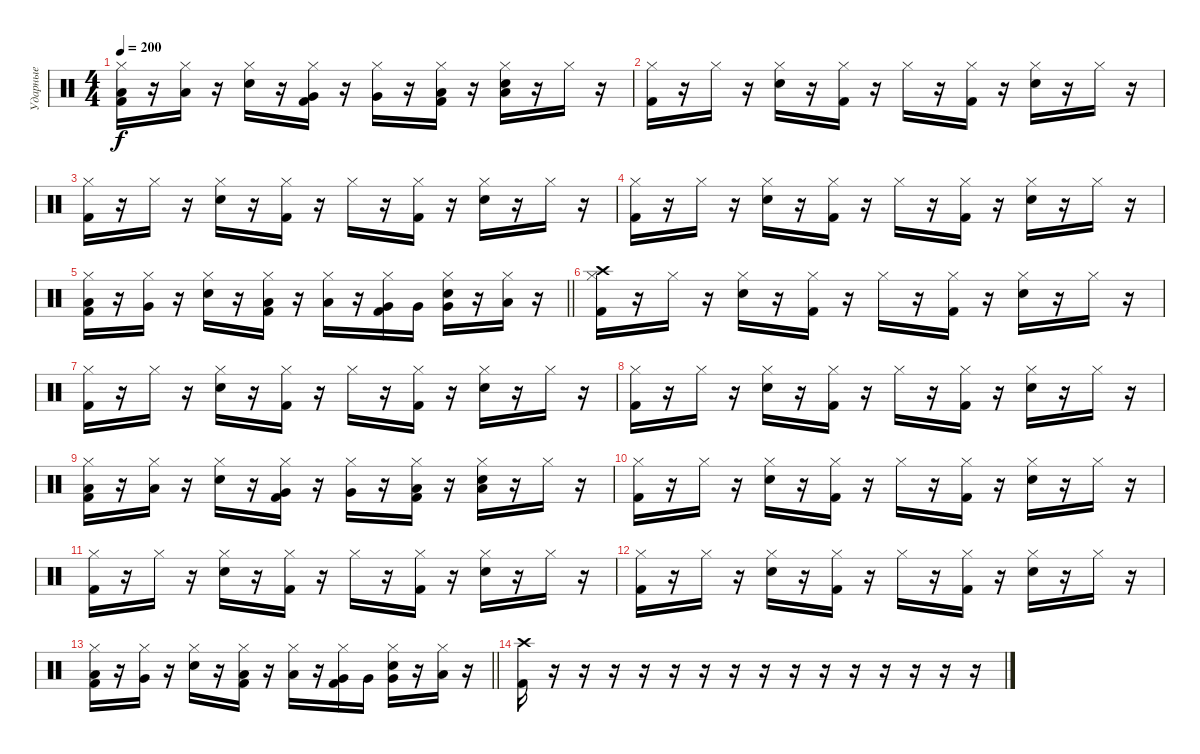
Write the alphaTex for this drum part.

\track ("Ударные" "Ударные") {instrument percussion}
\staff {score}
\articulation defaults
\ts (4 4)
\tempo 200
\clef neutral
\ks c
("Kick (hit) 2" "Low Floor Tom (hit)" "Hi-Hat (closed)").16{dy f} r.16 ("Low Floor Tom (hit)" "Hi-Hat (closed)").16 r.16 ("Snare (hit) 2" "Hi-Hat (closed)").16 r.16 ("Kick (hit) 2" "Very Low Tom (hit)" "Hi-Hat (closed)").16 r.16 ("Very Low Tom (hit)" "Hi-Hat (closed)").16 r.16 ("Kick (hit) 2" "Low Tom (hit)" "Hi-Hat (closed)").16 r.16 ("Snare (hit) 2" "Low Tom (hit)" "Hi-Hat (closed)").16 r.16 "Hi-Hat (closed)".16 r.16 |
("Kick (hit) 2" "Hi-Hat (closed)").16 r.16 "Hi-Hat (closed)".16 r.16 ("Snare (hit) 2" "Hi-Hat (closed)").16 r.16 ("Kick (hit) 2" "Hi-Hat (closed)").16 r.16 "Hi-Hat (closed)".16 r.16 ("Kick (hit) 2" "Hi-Hat (closed)").16 r.16 ("Snare (hit) 2" "Hi-Hat (closed)").16 r.16 "Hi-Hat (closed)".16 r.16 |
("Kick (hit) 2" "Hi-Hat (closed)").16 r.16 "Hi-Hat (closed)".16 r.16 ("Snare (hit) 2" "Hi-Hat (closed)").16 r.16 ("Kick (hit) 2" "Hi-Hat (closed)").16 r.16 "Hi-Hat (closed)".16 r.16 ("Kick (hit) 2" "Hi-Hat (closed)").16 r.16 ("Snare (hit) 2" "Hi-Hat (closed)").16 r.16 "Hi-Hat (closed)".16 r.16 |
("Kick (hit) 2" "Hi-Hat (closed)").16 r.16 "Hi-Hat (closed)".16 r.16 ("Snare (hit) 2" "Hi-Hat (closed)").16 r.16 ("Kick (hit) 2" "Hi-Hat (closed)").16 r.16 "Hi-Hat (closed)".16 r.16 ("Kick (hit) 2" "Hi-Hat (closed)").16 r.16 ("Snare (hit) 2" "Hi-Hat (closed)").16 r.16 "Hi-Hat (closed)".16 r.16 |
\barLineRight lightlight
("Kick (hit) 2" "Low Floor Tom (hit)" "Hi-Hat (closed)").16 r.16 ("Very Low Tom (hit)" "Hi-Hat (closed)").16 r.16 ("Snare (hit) 2" "Hi-Hat (closed)").16 r.16 ("Kick (hit) 2" "Low Floor Tom (hit)" "Hi-Hat (closed)").16 r.16 ("Low Floor Tom (hit)" "Hi-Hat (closed)").16 r.16 ("Kick (hit) 2" "Very Low Tom (hit)" "Hi-Hat (closed)").16 "Very Low Tom (hit)".16 ("Snare (hit) 2" "Very Low Tom (hit)" "Hi-Hat (closed)").16 r.16 ("Low Tom (hit)" "Hi-Hat (closed)").16 r.16 |
("Kick (hit) 2" "Crash high (hit)" "Hi-Hat (closed)").16 r.16 "Hi-Hat (closed)".16 r.16 ("Snare (hit) 2" "Hi-Hat (closed)").16 r.16 ("Kick (hit) 2" "Hi-Hat (closed)").16 r.16 "Hi-Hat (closed)".16 r.16 ("Kick (hit) 2" "Hi-Hat (closed)").16 r.16 ("Snare (hit) 2" "Hi-Hat (closed)").16 r.16 "Hi-Hat (closed)".16 r.16 |
("Kick (hit) 2" "Hi-Hat (closed)").16 r.16 "Hi-Hat (closed)".16 r.16 ("Snare (hit) 2" "Hi-Hat (closed)").16 r.16 ("Kick (hit) 2" "Hi-Hat (closed)").16 r.16 "Hi-Hat (closed)".16 r.16 ("Kick (hit) 2" "Hi-Hat (closed)").16 r.16 ("Snare (hit) 2" "Hi-Hat (closed)").16 r.16 "Hi-Hat (closed)".16 r.16 |
("Kick (hit) 2" "Hi-Hat (closed)").16 r.16 "Hi-Hat (closed)".16 r.16 ("Snare (hit) 2" "Hi-Hat (closed)").16 r.16 ("Kick (hit) 2" "Hi-Hat (closed)").16 r.16 "Hi-Hat (closed)".16 r.16 ("Kick (hit) 2" "Hi-Hat (closed)").16 r.16 ("Snare (hit) 2" "Hi-Hat (closed)").16 r.16 "Hi-Hat (closed)".16 r.16 |
("Kick (hit) 2" "Low Floor Tom (hit)" "Hi-Hat (closed)").16 r.16 ("Low Floor Tom (hit)" "Hi-Hat (closed)").16 r.16 ("Snare (hit) 2" "Hi-Hat (closed)").16 r.16 ("Kick (hit) 2" "Very Low Tom (hit)" "Hi-Hat (closed)").16 r.16 ("Very Low Tom (hit)" "Hi-Hat (closed)").16 r.16 ("Kick (hit) 2" "Low Tom (hit)" "Hi-Hat (closed)").16 r.16 ("Snare (hit) 2" "Low Tom (hit)" "Hi-Hat (closed)").16 r.16 "Hi-Hat (closed)".16 r.16 |
("Kick (hit) 2" "Hi-Hat (closed)").16 r.16 "Hi-Hat (closed)".16 r.16 ("Snare (hit) 2" "Hi-Hat (closed)").16 r.16 ("Kick (hit) 2" "Hi-Hat (closed)").16 r.16 "Hi-Hat (closed)".16 r.16 ("Kick (hit) 2" "Hi-Hat (closed)").16 r.16 ("Snare (hit) 2" "Hi-Hat (closed)").16 r.16 "Hi-Hat (closed)".16 r.16 |
("Kick (hit) 2" "Hi-Hat (closed)").16 r.16 "Hi-Hat (closed)".16 r.16 ("Snare (hit) 2" "Hi-Hat (closed)").16 r.16 ("Kick (hit) 2" "Hi-Hat (closed)").16 r.16 "Hi-Hat (closed)".16 r.16 ("Kick (hit) 2" "Hi-Hat (closed)").16 r.16 ("Snare (hit) 2" "Hi-Hat (closed)").16 r.16 "Hi-Hat (closed)".16 r.16 |
("Kick (hit) 2" "Hi-Hat (closed)").16 r.16 "Hi-Hat (closed)".16 r.16 ("Snare (hit) 2" "Hi-Hat (closed)").16 r.16 ("Kick (hit) 2" "Hi-Hat (closed)").16 r.16 "Hi-Hat (closed)".16 r.16 ("Kick (hit) 2" "Hi-Hat (closed)").16 r.16 ("Snare (hit) 2" "Hi-Hat (closed)").16 r.16 "Hi-Hat (closed)".16 r.16 |
\barLineRight lightlight
("Kick (hit) 2" "Low Floor Tom (hit)" "Hi-Hat (closed)").16 r.16 ("Very Low Tom (hit)" "Hi-Hat (closed)").16 r.16 ("Snare (hit) 2" "Hi-Hat (closed)").16 r.16 ("Kick (hit) 2" "Low Floor Tom (hit)" "Hi-Hat (closed)").16 r.16 ("Low Floor Tom (hit)" "Hi-Hat (closed)").16 r.16 ("Kick (hit) 2" "Very Low Tom (hit)" "Hi-Hat (closed)").16 "Very Low Tom (hit)".16 ("Snare (hit) 2" "Very Low Tom (hit)" "Hi-Hat (closed)").16 r.16 ("Low Tom (hit)" "Hi-Hat (closed)").16 r.16 |
("Kick (hit) 2" "Crash high (hit)").16 r.16 r.16 r.16 r.16 r.16 r.16 r.16 r.16 r.16 r.16 r.16 r.16 r.16 r.16 r.16
